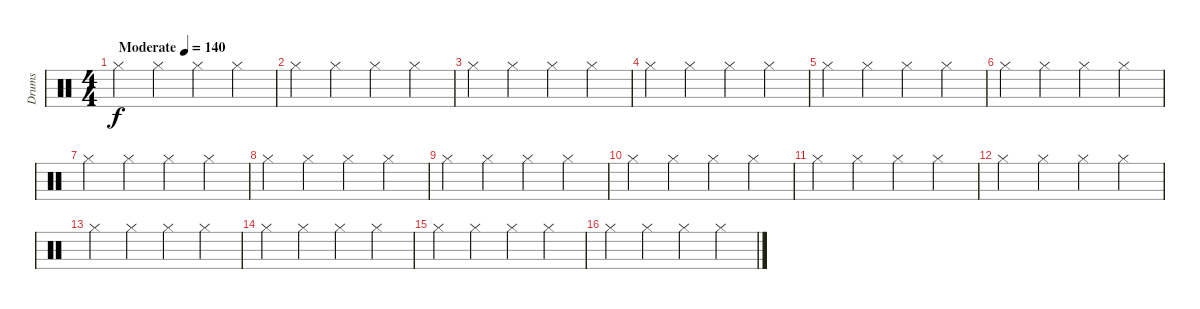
\track ("Drums" "Drums") {instrument percussion}
\staff {score}
\articulation defaults
\ts (4 4)
\tempo (140 "Moderate")
\clef neutral
\ks c "Hi-Hat (closed)".4{dy f} "Hi-Hat (closed)".4 "Hi-Hat (closed)".4 "Hi-Hat (closed)".4
|
"Hi-Hat (closed)".4 "Hi-Hat (closed)".4 "Hi-Hat (closed)".4 "Hi-Hat (closed)".4 |
"Hi-Hat (closed)".4 "Hi-Hat (closed)".4 "Hi-Hat (closed)".4 "Hi-Hat (closed)".4 |
"Hi-Hat (closed)".4 "Hi-Hat (closed)".4 "Hi-Hat (closed)".4 "Hi-Hat (closed)".4 |
"Hi-Hat (closed)".4 "Hi-Hat (closed)".4 "Hi-Hat (closed)".4 "Hi-Hat (closed)".4 |
"Hi-Hat (closed)".4 "Hi-Hat (closed)".4 "Hi-Hat (closed)".4 "Hi-Hat (closed)".4 |
"Hi-Hat (closed)".4 "Hi-Hat (closed)".4 "Hi-Hat (closed)".4 "Hi-Hat (closed)".4 |
"Hi-Hat (closed)".4 "Hi-Hat (closed)".4 "Hi-Hat (closed)".4 "Hi-Hat (closed)".4 |
"Hi-Hat (closed)".4 "Hi-Hat (closed)".4 "Hi-Hat (closed)".4 "Hi-Hat (closed)".4 |
"Hi-Hat (closed)".4 "Hi-Hat (closed)".4 "Hi-Hat (closed)".4 "Hi-Hat (closed)".4 |
"Hi-Hat (closed)".4 "Hi-Hat (closed)".4 "Hi-Hat (closed)".4 "Hi-Hat (closed)".4 |
"Hi-Hat (closed)".4 "Hi-Hat (closed)".4 "Hi-Hat (closed)".4 "Hi-Hat (closed)".4 |
"Hi-Hat (closed)".4 "Hi-Hat (closed)".4 "Hi-Hat (closed)".4 "Hi-Hat (closed)".4 |
"Hi-Hat (closed)".4 "Hi-Hat (closed)".4 "Hi-Hat (closed)".4 "Hi-Hat (closed)".4 |
"Hi-Hat (closed)".4 "Hi-Hat (closed)".4 "Hi-Hat (closed)".4 "Hi-Hat (closed)".4 |
"Hi-Hat (closed)".4 "Hi-Hat (closed)".4 "Hi-Hat (closed)".4 "Hi-Hat (closed)".4
